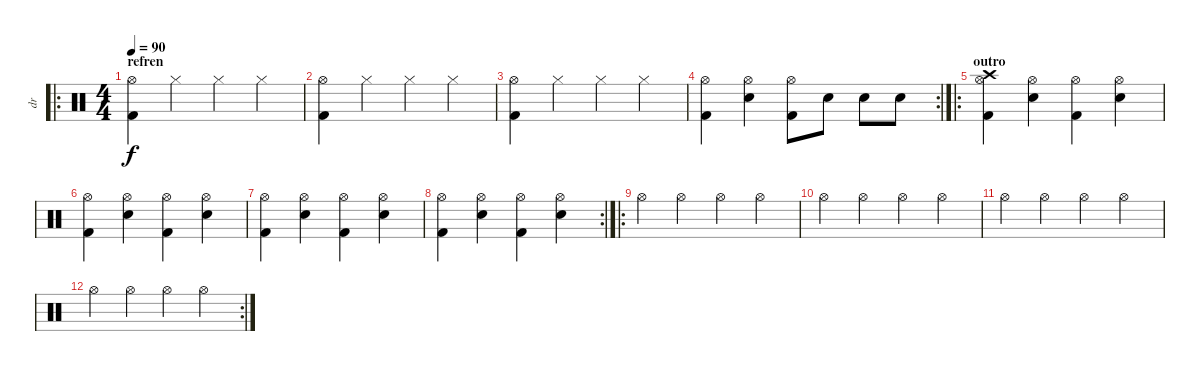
\track ("dr" "dr") {instrument percussion}
\staff {score}
\articulation defaults
\ro
\ts (4 4)
\section ("" "refren")
\tempo 90
\clef neutral
\ks c
("Hi-Hat (open)" "Kick (hit) 2").4{dy f} "Hi-Hat (closed)".4 "Hi-Hat (closed)".4 "Hi-Hat (closed)".4 |
("Hi-Hat (open)" "Kick (hit) 2").4 "Hi-Hat (closed)".4 "Hi-Hat (closed)".4 "Hi-Hat (closed)".4 |
("Hi-Hat (open)" "Kick (hit) 2").4 "Hi-Hat (closed)".4 "Hi-Hat (closed)".4 "Hi-Hat (closed)".4 |
\rc 2
("Hi-Hat (open)" "Kick (hit) 2").4 ("Hi-Hat (open)" "Electric Snare (hit)").4 ("Hi-Hat (open)" "Kick (hit) 2").8 "Electric Snare (hit)".8 "Electric Snare (hit)".8 "Electric Snare (hit)".8 |
\ro
\section ("" "outro")
("Hi-Hat (open)" "Kick (hit) 2" "Crash high (hit)").4 ("Hi-Hat (open)" "Electric Snare (hit)").4 ("Hi-Hat (open)" "Kick (hit) 2").4 ("Hi-Hat (open)" "Electric Snare (hit)").4 |
("Hi-Hat (open)" "Kick (hit) 2").4 ("Hi-Hat (open)" "Electric Snare (hit)").4 ("Hi-Hat (open)" "Kick (hit) 2").4 ("Hi-Hat (open)" "Electric Snare (hit)").4 |
("Hi-Hat (open)" "Kick (hit) 2").4 ("Hi-Hat (open)" "Electric Snare (hit)").4 ("Hi-Hat (open)" "Kick (hit) 2").4 ("Hi-Hat (open)" "Electric Snare (hit)").4 |
\rc 2
("Hi-Hat (open)" "Kick (hit) 2").4 ("Hi-Hat (open)" "Electric Snare (hit)").4 ("Hi-Hat (open)" "Kick (hit) 2").4 ("Hi-Hat (open)" "Electric Snare (hit)").4 |
\ro "Hi-Hat (open)".4 "Hi-Hat (open)".4 "Hi-Hat (open)".4 "Hi-Hat (open)".4
|
"Hi-Hat (open)".4 "Hi-Hat (open)".4 "Hi-Hat (open)".4 "Hi-Hat (open)".4 |
"Hi-Hat (open)".4 "Hi-Hat (open)".4 "Hi-Hat (open)".4 "Hi-Hat (open)".4 |
\rc 2 "Hi-Hat (open)".4 "Hi-Hat (open)".4 "Hi-Hat (open)".4 "Hi-Hat (open)".4
